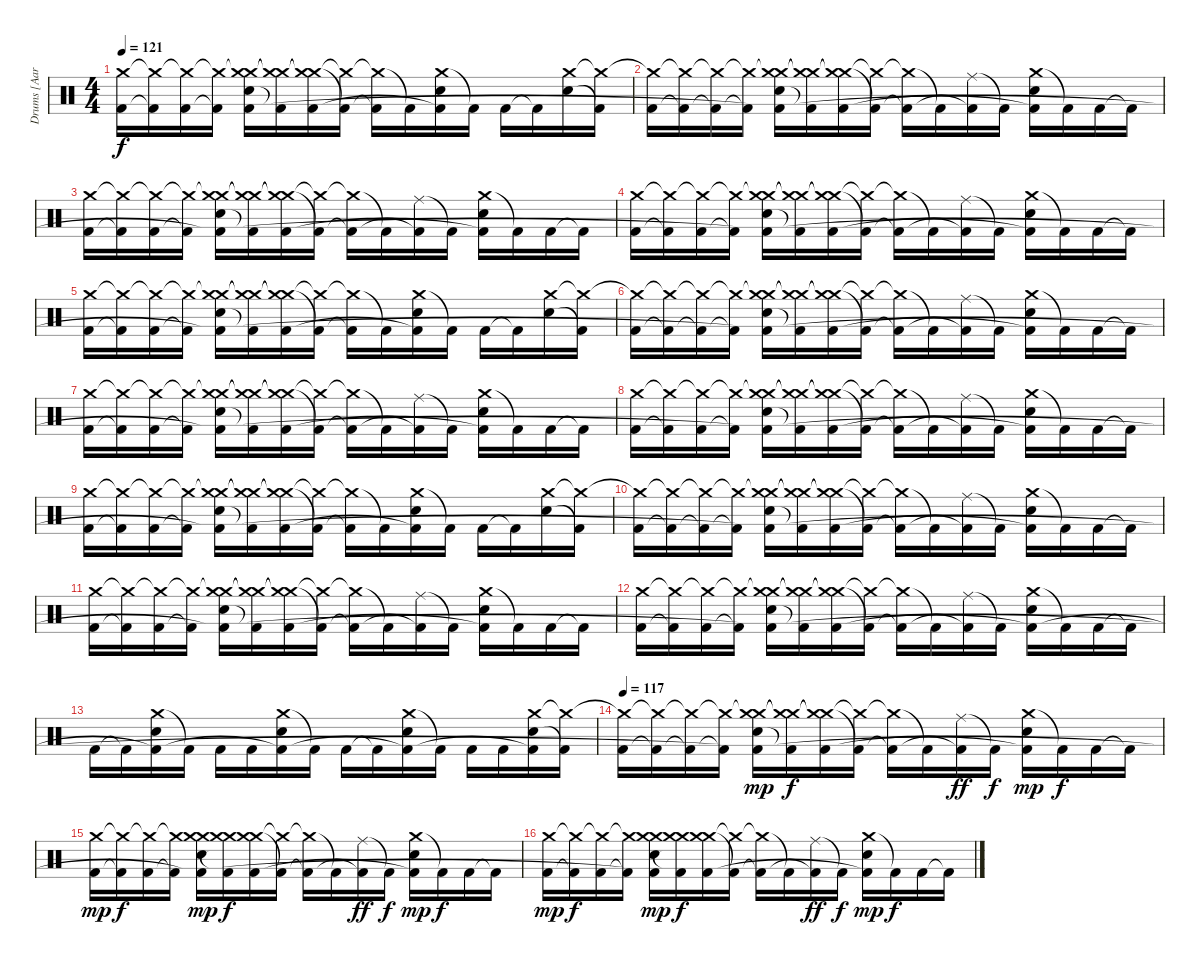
\track ("Drums [Aaron Harris]" "Drums [Aar") {instrument percussion}
\staff {score}
\articulation defaults
\ts (4 4)
\tempo 121
\clef neutral
\ks c
("Crash medium (hit)" "Kick (hit) 2").16{dy f} ("Crash medium (hit)"{t} "Kick (hit) 2"{t}).16 ("Crash medium (hit)"{t} "Kick (hit) 2").16 ("Crash medium (hit)"{t} "Kick (hit) 2"{t}).16 ("Crash medium (hit)"{t} "Crash medium (hit)" "Electric Snare (hit)" "Kick (hit) 2"{t}).16 ("Crash medium (hit)"{t} "Crash medium (hit)"{t} "Kick (hit) 2"{t}).16 ("Crash medium (hit)"{t} "Crash medium (hit)"{t} "Kick (hit) 2").16 ("Crash medium (hit)"{t} "Kick (hit) 2"{t}).16 ("Crash medium (hit)"{t} "Kick (hit) 2"{t}).16 "Kick (hit) 2"{t}.16 ("Crash medium (hit)" "Electric Snare (hit)" "Kick (hit) 2"{t}).16 "Kick (hit) 2"{t}.16 "Kick (hit) 2".16 "Kick (hit) 2"{t}.16 ("Crash medium (hit)" "Electric Snare (hit)").16 ("Crash medium (hit)"{t} "Kick (hit) 2"{t}).16 |
("Crash medium (hit)"{t} "Kick (hit) 2").16 ("Crash medium (hit)"{t} "Kick (hit) 2"{t}).16 ("Crash medium (hit)"{t} "Kick (hit) 2"{t}).16 ("Crash medium (hit)"{t} "Kick (hit) 2"{t}).16 ("Crash medium (hit)"{t} "Crash medium (hit)" "Electric Snare (hit)" "Kick (hit) 2"{t}).16 ("Crash medium (hit)"{t} "Crash medium (hit)"{t} "Kick (hit) 2"{t}).16 ("Crash medium (hit)"{t} "Crash medium (hit)"{t} "Kick (hit) 2").16 ("Crash medium (hit)"{t} "Kick (hit) 2"{t}).16 ("Crash medium (hit)"{t} "Kick (hit) 2"{t}).16 "Kick (hit) 2"{t}.16 ("Ride (middle)" "Kick (hit) 2"{t}).16 "Kick (hit) 2"{t}.16 ("Crash medium (hit)" "Electric Snare (hit)" "Kick (hit) 2"{t}).16 "Kick (hit) 2"{t}.16 "Kick (hit) 2".16 "Kick (hit) 2"{t}.16 |
("Crash medium (hit)" "Kick (hit) 2").16 ("Crash medium (hit)"{t} "Kick (hit) 2"{t}).16 ("Crash medium (hit)"{t} "Kick (hit) 2").16 ("Crash medium (hit)"{t} "Kick (hit) 2"{t}).16 ("Crash medium (hit)"{t} "Crash medium (hit)" "Electric Snare (hit)" "Kick (hit) 2"{t}).16 ("Crash medium (hit)"{t} "Crash medium (hit)"{t} "Kick (hit) 2"{t}).16 ("Crash medium (hit)"{t} "Crash medium (hit)"{t} "Kick (hit) 2").16 ("Crash medium (hit)"{t} "Kick (hit) 2"{t}).16 ("Crash medium (hit)"{t} "Kick (hit) 2"{t}).16 "Kick (hit) 2"{t}.16 ("Ride (middle)" "Kick (hit) 2"{t}).16 "Kick (hit) 2"{t}.16 ("Crash medium (hit)" "Electric Snare (hit)" "Kick (hit) 2"{t}).16 "Kick (hit) 2"{t}.16 "Kick (hit) 2".16 "Kick (hit) 2"{t}.16 |
("Crash medium (hit)" "Kick (hit) 2").16 ("Crash medium (hit)"{t} "Kick (hit) 2"{t}).16 ("Crash medium (hit)"{t} "Kick (hit) 2").16 ("Crash medium (hit)"{t} "Kick (hit) 2"{t}).16 ("Crash medium (hit)"{t} "Crash medium (hit)" "Electric Snare (hit)" "Kick (hit) 2"{t}).16 ("Crash medium (hit)"{t} "Crash medium (hit)"{t} "Kick (hit) 2"{t}).16 ("Crash medium (hit)"{t} "Crash medium (hit)"{t} "Kick (hit) 2").16 ("Crash medium (hit)"{t} "Kick (hit) 2"{t}).16 ("Crash medium (hit)"{t} "Kick (hit) 2"{t}).16 "Kick (hit) 2"{t}.16 ("Ride (middle)" "Kick (hit) 2"{t}).16 "Kick (hit) 2"{t}.16 ("Crash medium (hit)" "Electric Snare (hit)" "Kick (hit) 2"{t}).16 "Kick (hit) 2"{t}.16 "Kick (hit) 2".16 "Kick (hit) 2"{t}.16 |
("Crash medium (hit)" "Kick (hit) 2").16 ("Crash medium (hit)"{t} "Kick (hit) 2"{t}).16 ("Crash medium (hit)"{t} "Kick (hit) 2").16 ("Crash medium (hit)"{t} "Kick (hit) 2"{t}).16 ("Crash medium (hit)"{t} "Crash medium (hit)" "Electric Snare (hit)" "Kick (hit) 2"{t}).16 ("Crash medium (hit)"{t} "Crash medium (hit)"{t} "Kick (hit) 2"{t}).16 ("Crash medium (hit)"{t} "Crash medium (hit)"{t} "Kick (hit) 2").16 ("Crash medium (hit)"{t} "Kick (hit) 2"{t}).16 ("Crash medium (hit)"{t} "Kick (hit) 2"{t}).16 "Kick (hit) 2"{t}.16 ("Crash medium (hit)" "Electric Snare (hit)" "Kick (hit) 2"{t}).16 "Kick (hit) 2"{t}.16 "Kick (hit) 2".16 "Kick (hit) 2"{t}.16 ("Crash medium (hit)" "Electric Snare (hit)").16 ("Crash medium (hit)"{t} "Kick (hit) 2"{t}).16 |
("Crash medium (hit)"{t} "Kick (hit) 2").16 ("Crash medium (hit)"{t} "Kick (hit) 2"{t}).16 ("Crash medium (hit)"{t} "Kick (hit) 2"{t}).16 ("Crash medium (hit)"{t} "Kick (hit) 2"{t}).16 ("Crash medium (hit)"{t} "Crash medium (hit)" "Electric Snare (hit)" "Kick (hit) 2"{t}).16 ("Crash medium (hit)"{t} "Crash medium (hit)"{t} "Kick (hit) 2"{t}).16 ("Crash medium (hit)"{t} "Crash medium (hit)"{t} "Kick (hit) 2").16 ("Crash medium (hit)"{t} "Kick (hit) 2"{t}).16 ("Crash medium (hit)"{t} "Kick (hit) 2"{t}).16 "Kick (hit) 2"{t}.16 ("Ride (middle)" "Kick (hit) 2"{t}).16 "Kick (hit) 2"{t}.16 ("Crash medium (hit)" "Electric Snare (hit)" "Kick (hit) 2"{t}).16 "Kick (hit) 2"{t}.16 "Kick (hit) 2".16 "Kick (hit) 2"{t}.16 |
("Crash medium (hit)" "Kick (hit) 2").16 ("Crash medium (hit)"{t} "Kick (hit) 2"{t}).16 ("Crash medium (hit)"{t} "Kick (hit) 2").16 ("Crash medium (hit)"{t} "Kick (hit) 2"{t}).16 ("Crash medium (hit)"{t} "Crash medium (hit)" "Electric Snare (hit)" "Kick (hit) 2"{t}).16 ("Crash medium (hit)"{t} "Crash medium (hit)"{t} "Kick (hit) 2"{t}).16 ("Crash medium (hit)"{t} "Crash medium (hit)"{t} "Kick (hit) 2").16 ("Crash medium (hit)"{t} "Kick (hit) 2"{t}).16 ("Crash medium (hit)"{t} "Kick (hit) 2"{t}).16 "Kick (hit) 2"{t}.16 ("Ride (middle)" "Kick (hit) 2"{t}).16 "Kick (hit) 2"{t}.16 ("Crash medium (hit)" "Electric Snare (hit)" "Kick (hit) 2"{t}).16 "Kick (hit) 2"{t}.16 "Kick (hit) 2".16 "Kick (hit) 2"{t}.16 |
("Crash medium (hit)" "Kick (hit) 2").16 ("Crash medium (hit)"{t} "Kick (hit) 2"{t}).16 ("Crash medium (hit)"{t} "Kick (hit) 2").16 ("Crash medium (hit)"{t} "Kick (hit) 2"{t}).16 ("Crash medium (hit)"{t} "Crash medium (hit)" "Electric Snare (hit)" "Kick (hit) 2"{t}).16 ("Crash medium (hit)"{t} "Crash medium (hit)"{t} "Kick (hit) 2"{t}).16 ("Crash medium (hit)"{t} "Crash medium (hit)"{t} "Kick (hit) 2").16 ("Crash medium (hit)"{t} "Kick (hit) 2"{t}).16 ("Crash medium (hit)"{t} "Kick (hit) 2"{t}).16 "Kick (hit) 2"{t}.16 ("Ride (middle)" "Kick (hit) 2"{t}).16 "Kick (hit) 2"{t}.16 ("Crash medium (hit)" "Electric Snare (hit)" "Kick (hit) 2"{t}).16 "Kick (hit) 2"{t}.16 "Kick (hit) 2".16 "Kick (hit) 2"{t}.16 |
("Crash medium (hit)" "Kick (hit) 2").16 ("Crash medium (hit)"{t} "Kick (hit) 2"{t}).16 ("Crash medium (hit)"{t} "Kick (hit) 2").16 ("Crash medium (hit)"{t} "Kick (hit) 2"{t}).16 ("Crash medium (hit)"{t} "Crash medium (hit)" "Electric Snare (hit)" "Kick (hit) 2"{t}).16 ("Crash medium (hit)"{t} "Crash medium (hit)"{t} "Kick (hit) 2"{t}).16 ("Crash medium (hit)"{t} "Crash medium (hit)"{t} "Kick (hit) 2").16 ("Crash medium (hit)"{t} "Kick (hit) 2"{t}).16 ("Crash medium (hit)"{t} "Kick (hit) 2"{t}).16 "Kick (hit) 2"{t}.16 ("Crash medium (hit)" "Electric Snare (hit)" "Kick (hit) 2"{t}).16 "Kick (hit) 2"{t}.16 "Kick (hit) 2".16 "Kick (hit) 2"{t}.16 ("Crash medium (hit)" "Electric Snare (hit)").16 ("Crash medium (hit)"{t} "Kick (hit) 2"{t}).16 |
("Crash medium (hit)"{t} "Kick (hit) 2").16 ("Crash medium (hit)"{t} "Kick (hit) 2"{t}).16 ("Crash medium (hit)"{t} "Kick (hit) 2"{t}).16 ("Crash medium (hit)"{t} "Kick (hit) 2"{t}).16 ("Crash medium (hit)"{t} "Crash medium (hit)" "Electric Snare (hit)" "Kick (hit) 2"{t}).16 ("Crash medium (hit)"{t} "Crash medium (hit)"{t} "Kick (hit) 2"{t}).16 ("Crash medium (hit)"{t} "Crash medium (hit)"{t} "Kick (hit) 2").16 ("Crash medium (hit)"{t} "Kick (hit) 2"{t}).16 ("Crash medium (hit)"{t} "Kick (hit) 2"{t}).16 "Kick (hit) 2"{t}.16 ("Ride (middle)" "Kick (hit) 2"{t}).16 "Kick (hit) 2"{t}.16 ("Crash medium (hit)" "Electric Snare (hit)" "Kick (hit) 2"{t}).16 "Kick (hit) 2"{t}.16 "Kick (hit) 2".16 "Kick (hit) 2"{t}.16 |
("Crash medium (hit)" "Kick (hit) 2").16 ("Crash medium (hit)"{t} "Kick (hit) 2"{t}).16 ("Crash medium (hit)"{t} "Kick (hit) 2").16 ("Crash medium (hit)"{t} "Kick (hit) 2"{t}).16 ("Crash medium (hit)"{t} "Crash medium (hit)" "Electric Snare (hit)" "Kick (hit) 2"{t}).16 ("Crash medium (hit)"{t} "Crash medium (hit)"{t} "Kick (hit) 2"{t}).16 ("Crash medium (hit)"{t} "Crash medium (hit)"{t} "Kick (hit) 2").16 ("Crash medium (hit)"{t} "Kick (hit) 2"{t}).16 ("Crash medium (hit)"{t} "Kick (hit) 2"{t}).16 "Kick (hit) 2"{t}.16 ("Ride (middle)" "Kick (hit) 2"{t}).16 "Kick (hit) 2"{t}.16 ("Crash medium (hit)" "Electric Snare (hit)" "Kick (hit) 2"{t}).16 "Kick (hit) 2"{t}.16 "Kick (hit) 2".16 "Kick (hit) 2"{t}.16 |
("Crash medium (hit)" "Kick (hit) 2").16 ("Crash medium (hit)"{t} "Kick (hit) 2"{t}).16 ("Crash medium (hit)"{t} "Kick (hit) 2").16 ("Crash medium (hit)"{t} "Kick (hit) 2"{t}).16 ("Crash medium (hit)"{t} "Crash medium (hit)" "Electric Snare (hit)" "Kick (hit) 2"{t}).16 ("Crash medium (hit)"{t} "Crash medium (hit)"{t} "Kick (hit) 2"{t}).16 ("Crash medium (hit)"{t} "Crash medium (hit)"{t} "Kick (hit) 2").16 ("Crash medium (hit)"{t} "Kick (hit) 2"{t}).16 ("Crash medium (hit)"{t} "Kick (hit) 2"{t}).16 "Kick (hit) 2"{t}.16 ("Ride (middle)" "Kick (hit) 2"{t}).16 "Kick (hit) 2"{t}.16 ("Crash medium (hit)" "Electric Snare (hit)" "Kick (hit) 2"{t}).16 "Kick (hit) 2"{t}.16 "Kick (hit) 2".16 "Kick (hit) 2"{t}.16 |
"Kick (hit) 2".16 "Kick (hit) 2"{t}.16 ("Crash medium (hit)" "Electric Snare (hit)" "Kick (hit) 2"{t}).16 "Kick (hit) 2"{t}.16 "Kick (hit) 2".16 "Kick (hit) 2".16 ("Crash medium (hit)" "Electric Snare (hit)" "Kick (hit) 2"{t}).16 "Kick (hit) 2"{t}.16 "Kick (hit) 2".16 "Kick (hit) 2"{t}.16 ("Crash medium (hit)" "Electric Snare (hit)" "Kick (hit) 2"{t}).16 "Kick (hit) 2"{t}.16 "Kick (hit) 2".16 "Kick (hit) 2".16 ("Crash medium (hit)" "Electric Snare (hit)" "Kick (hit) 2"{t}).16 ("Crash medium (hit)"{t} "Kick (hit) 2"{t}).16 |
\tempo 117
("Crash medium (hit)"{t} "Kick (hit) 2").16 ("Crash medium (hit)"{t} "Kick (hit) 2"{t}).16 ("Crash medium (hit)"{t} "Kick (hit) 2"{t}).16 ("Crash medium (hit)"{t} "Kick (hit) 2"{t}).16 ("Crash medium (hit)"{t} "Crash medium (hit)" "Electric Snare (hit)" "Kick (hit) 2"{t}).16{dy mp} ("Crash medium (hit)"{t} "Crash medium (hit)"{t} "Kick (hit) 2"{t}).16{dy f} ("Crash medium (hit)"{t} "Crash medium (hit)"{t} "Kick (hit) 2").16 ("Crash medium (hit)"{t} "Kick (hit) 2"{t}).16 ("Crash medium (hit)"{t} "Kick (hit) 2"{t}).16 "Kick (hit) 2"{t}.16 ("Ride (middle)" "Kick (hit) 2"{t}).16{dy ff} "Kick (hit) 2"{t}.16{dy f} ("Crash medium (hit)" "Electric Snare (hit)" "Kick (hit) 2"{t}).16{dy mp} "Kick (hit) 2"{t}.16{dy f} "Kick (hit) 2".16 "Kick (hit) 2"{t}.16 |
("Crash medium (hit)" "Kick (hit) 2").16{dy mp} ("Crash medium (hit)"{t} "Kick (hit) 2"{t}).16{dy f} ("Crash medium (hit)"{t} "Kick (hit) 2").16 ("Crash medium (hit)"{t} "Kick (hit) 2"{t}).16 ("Crash medium (hit)"{t} "Crash medium (hit)" "Electric Snare (hit)" "Kick (hit) 2"{t}).16{dy mp} ("Crash medium (hit)"{t} "Crash medium (hit)"{t} "Kick (hit) 2"{t}).16{dy f} ("Crash medium (hit)"{t} "Crash medium (hit)"{t} "Kick (hit) 2").16 ("Crash medium (hit)"{t} "Kick (hit) 2"{t}).16 ("Crash medium (hit)"{t} "Kick (hit) 2"{t}).16 "Kick (hit) 2"{t}.16 ("Ride (middle)" "Kick (hit) 2"{t}).16{dy ff} "Kick (hit) 2"{t}.16{dy f} ("Crash medium (hit)" "Electric Snare (hit)" "Kick (hit) 2"{t}).16{dy mp} "Kick (hit) 2"{t}.16{dy f} "Kick (hit) 2".16 "Kick (hit) 2"{t}.16 |
("Crash medium (hit)" "Kick (hit) 2").16{dy mp} ("Crash medium (hit)"{t} "Kick (hit) 2"{t}).16{dy f} ("Crash medium (hit)"{t} "Kick (hit) 2").16 ("Crash medium (hit)"{t} "Kick (hit) 2"{t}).16 ("Crash medium (hit)"{t} "Crash medium (hit)" "Electric Snare (hit)" "Kick (hit) 2"{t}).16{dy mp} ("Crash medium (hit)"{t} "Crash medium (hit)"{t} "Kick (hit) 2"{t}).16{dy f} ("Crash medium (hit)"{t} "Crash medium (hit)"{t} "Kick (hit) 2").16 ("Crash medium (hit)"{t} "Kick (hit) 2"{t}).16 ("Crash medium (hit)"{t} "Kick (hit) 2"{t}).16 "Kick (hit) 2"{t}.16 ("Ride (middle)" "Kick (hit) 2"{t}).16{dy ff} "Kick (hit) 2"{t}.16{dy f} ("Crash medium (hit)" "Electric Snare (hit)" "Kick (hit) 2"{t}).16{dy mp} "Kick (hit) 2"{t}.16{dy f} "Kick (hit) 2".16 "Kick (hit) 2"{t}.16
